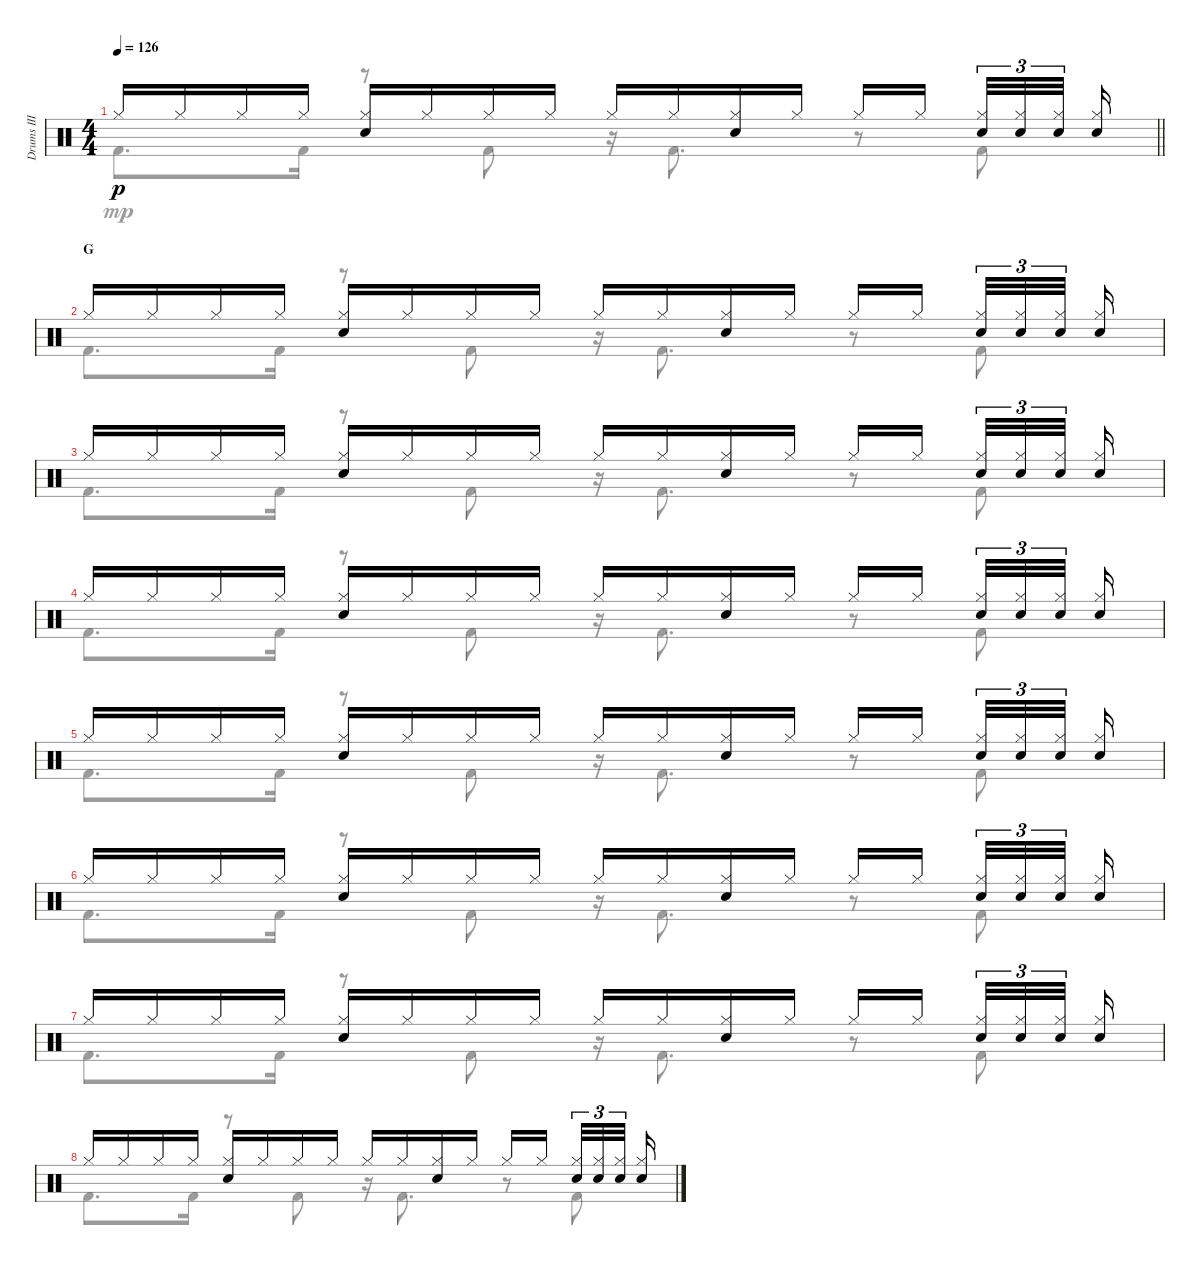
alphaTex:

\track ("Drums III" "Drums III") {instrument percussion}
\staff {score}
\articulation defaults
\voice
\ts (4 4)
\tempo 126
\clef neutral
\barLineRight lightlight
\ks c "Hi-Hat (closed)".16{dy p} "Hi-Hat (closed)".16 "Hi-Hat (closed)".16 "Hi-Hat (closed)".16
("Hi-Hat (closed)" "Electric Snare (hit)").16 "Hi-Hat (closed)".16 "Hi-Hat (closed)".16 "Hi-Hat (closed)".16 "Hi-Hat (closed)".16 "Hi-Hat (closed)".16 ("Hi-Hat (closed)" "Electric Snare (hit)").16 "Hi-Hat (closed)".16 "Hi-Hat (closed)".16 "Hi-Hat (closed)".16{beam splitsecondary} ("Hi-Hat (closed)" "Electric Snare (hit)").32{tu (3 2)} ("Hi-Hat (closed)" "Electric Snare (hit)").32{tu (3 2)} ("Hi-Hat (closed)" "Electric Snare (hit)").32{tu (3 2) beam splitsecondary} ("Hi-Hat (closed)" "Electric Snare (hit)").16 |
\section ("" "G")
"Hi-Hat (closed)".16 "Hi-Hat (closed)".16 "Hi-Hat (closed)".16 "Hi-Hat (closed)".16 ("Hi-Hat (closed)" "Electric Snare (hit)").16 "Hi-Hat (closed)".16 "Hi-Hat (closed)".16 "Hi-Hat (closed)".16 "Hi-Hat (closed)".16 "Hi-Hat (closed)".16 ("Hi-Hat (closed)" "Electric Snare (hit)").16 "Hi-Hat (closed)".16 "Hi-Hat (closed)".16 "Hi-Hat (closed)".16{beam splitsecondary} ("Hi-Hat (closed)" "Electric Snare (hit)").32{tu (3 2)} ("Hi-Hat (closed)" "Electric Snare (hit)").32{tu (3 2)} ("Hi-Hat (closed)" "Electric Snare (hit)").32{tu (3 2) beam splitsecondary} ("Hi-Hat (closed)" "Electric Snare (hit)").16 |
"Hi-Hat (closed)".16 "Hi-Hat (closed)".16 "Hi-Hat (closed)".16 "Hi-Hat (closed)".16 ("Hi-Hat (closed)" "Electric Snare (hit)").16 "Hi-Hat (closed)".16 "Hi-Hat (closed)".16 "Hi-Hat (closed)".16 "Hi-Hat (closed)".16 "Hi-Hat (closed)".16 ("Hi-Hat (closed)" "Electric Snare (hit)").16 "Hi-Hat (closed)".16 "Hi-Hat (closed)".16 "Hi-Hat (closed)".16{beam splitsecondary} ("Hi-Hat (closed)" "Electric Snare (hit)").32{tu (3 2)} ("Hi-Hat (closed)" "Electric Snare (hit)").32{tu (3 2)} ("Hi-Hat (closed)" "Electric Snare (hit)").32{tu (3 2) beam splitsecondary} ("Hi-Hat (closed)" "Electric Snare (hit)").16 |
"Hi-Hat (closed)".16 "Hi-Hat (closed)".16 "Hi-Hat (closed)".16 "Hi-Hat (closed)".16 ("Hi-Hat (closed)" "Electric Snare (hit)").16 "Hi-Hat (closed)".16 "Hi-Hat (closed)".16 "Hi-Hat (closed)".16 "Hi-Hat (closed)".16 "Hi-Hat (closed)".16 ("Hi-Hat (closed)" "Electric Snare (hit)").16 "Hi-Hat (closed)".16 "Hi-Hat (closed)".16 "Hi-Hat (closed)".16{beam splitsecondary} ("Hi-Hat (closed)" "Electric Snare (hit)").32{tu (3 2)} ("Hi-Hat (closed)" "Electric Snare (hit)").32{tu (3 2)} ("Hi-Hat (closed)" "Electric Snare (hit)").32{tu (3 2) beam splitsecondary} ("Hi-Hat (closed)" "Electric Snare (hit)").16 |
"Hi-Hat (closed)".16 "Hi-Hat (closed)".16 "Hi-Hat (closed)".16 "Hi-Hat (closed)".16 ("Hi-Hat (closed)" "Electric Snare (hit)").16 "Hi-Hat (closed)".16 "Hi-Hat (closed)".16 "Hi-Hat (closed)".16 "Hi-Hat (closed)".16 "Hi-Hat (closed)".16 ("Hi-Hat (closed)" "Electric Snare (hit)").16 "Hi-Hat (closed)".16 "Hi-Hat (closed)".16 "Hi-Hat (closed)".16{beam splitsecondary} ("Hi-Hat (closed)" "Electric Snare (hit)").32{tu (3 2)} ("Hi-Hat (closed)" "Electric Snare (hit)").32{tu (3 2)} ("Hi-Hat (closed)" "Electric Snare (hit)").32{tu (3 2) beam splitsecondary} ("Hi-Hat (closed)" "Electric Snare (hit)").16 |
"Hi-Hat (closed)".16 "Hi-Hat (closed)".16 "Hi-Hat (closed)".16 "Hi-Hat (closed)".16 ("Hi-Hat (closed)" "Electric Snare (hit)").16 "Hi-Hat (closed)".16 "Hi-Hat (closed)".16 "Hi-Hat (closed)".16 "Hi-Hat (closed)".16 "Hi-Hat (closed)".16 ("Hi-Hat (closed)" "Electric Snare (hit)").16 "Hi-Hat (closed)".16 "Hi-Hat (closed)".16 "Hi-Hat (closed)".16{beam splitsecondary} ("Hi-Hat (closed)" "Electric Snare (hit)").32{tu (3 2)} ("Hi-Hat (closed)" "Electric Snare (hit)").32{tu (3 2)} ("Hi-Hat (closed)" "Electric Snare (hit)").32{tu (3 2) beam splitsecondary} ("Hi-Hat (closed)" "Electric Snare (hit)").16 |
"Hi-Hat (closed)".16 "Hi-Hat (closed)".16 "Hi-Hat (closed)".16 "Hi-Hat (closed)".16 ("Hi-Hat (closed)" "Electric Snare (hit)").16 "Hi-Hat (closed)".16 "Hi-Hat (closed)".16 "Hi-Hat (closed)".16 "Hi-Hat (closed)".16 "Hi-Hat (closed)".16 ("Hi-Hat (closed)" "Electric Snare (hit)").16 "Hi-Hat (closed)".16 "Hi-Hat (closed)".16 "Hi-Hat (closed)".16{beam splitsecondary} ("Hi-Hat (closed)" "Electric Snare (hit)").32{tu (3 2)} ("Hi-Hat (closed)" "Electric Snare (hit)").32{tu (3 2)} ("Hi-Hat (closed)" "Electric Snare (hit)").32{tu (3 2) beam splitsecondary} ("Hi-Hat (closed)" "Electric Snare (hit)").16 |
"Hi-Hat (closed)".16 "Hi-Hat (closed)".16 "Hi-Hat (closed)".16 "Hi-Hat (closed)".16 ("Hi-Hat (closed)" "Electric Snare (hit)").16 "Hi-Hat (closed)".16 "Hi-Hat (closed)".16 "Hi-Hat (closed)".16 "Hi-Hat (closed)".16 "Hi-Hat (closed)".16 ("Hi-Hat (closed)" "Electric Snare (hit)").16 "Hi-Hat (closed)".16 "Hi-Hat (closed)".16 "Hi-Hat (closed)".16{beam splitsecondary} ("Hi-Hat (closed)" "Electric Snare (hit)").32{tu (3 2)} ("Hi-Hat (closed)" "Electric Snare (hit)").32{tu (3 2)} ("Hi-Hat (closed)" "Electric Snare (hit)").32{tu (3 2) beam splitsecondary} ("Hi-Hat (closed)" "Electric Snare (hit)").16
\voice
\clef neutral
\ottava regular
\simile none
\barLineRight lightlight
\ks c "Kick (hit) 2".8{d dy mp} "Kick (hit) 2".16
r.8 "Kick (hit) 2".8 r.16 "Kick (hit) 2".8{d} r.8 "Kick (hit) 2".8 |
"Kick (hit) 2".8{d} "Kick (hit) 2".16 r.8 "Kick (hit) 2".8 r.16 "Kick (hit) 2".8{d} r.8 "Kick (hit) 2".8 |
"Kick (hit) 2".8{d} "Kick (hit) 2".16 r.8 "Kick (hit) 2".8 r.16 "Kick (hit) 2".8{d} r.8 "Kick (hit) 2".8 |
"Kick (hit) 2".8{d} "Kick (hit) 2".16 r.8 "Kick (hit) 2".8 r.16 "Kick (hit) 2".8{d} r.8 "Kick (hit) 2".8 |
"Kick (hit) 2".8{d} "Kick (hit) 2".16 r.8 "Kick (hit) 2".8 r.16 "Kick (hit) 2".8{d} r.8 "Kick (hit) 2".8 |
"Kick (hit) 2".8{d} "Kick (hit) 2".16 r.8 "Kick (hit) 2".8 r.16 "Kick (hit) 2".8{d} r.8 "Kick (hit) 2".8 |
"Kick (hit) 2".8{d} "Kick (hit) 2".16 r.8 "Kick (hit) 2".8 r.16 "Kick (hit) 2".8{d} r.8 "Kick (hit) 2".8 |
"Kick (hit) 2".8{d} "Kick (hit) 2".16 r.8 "Kick (hit) 2".8 r.16 "Kick (hit) 2".8{d} r.8 "Kick (hit) 2".8
